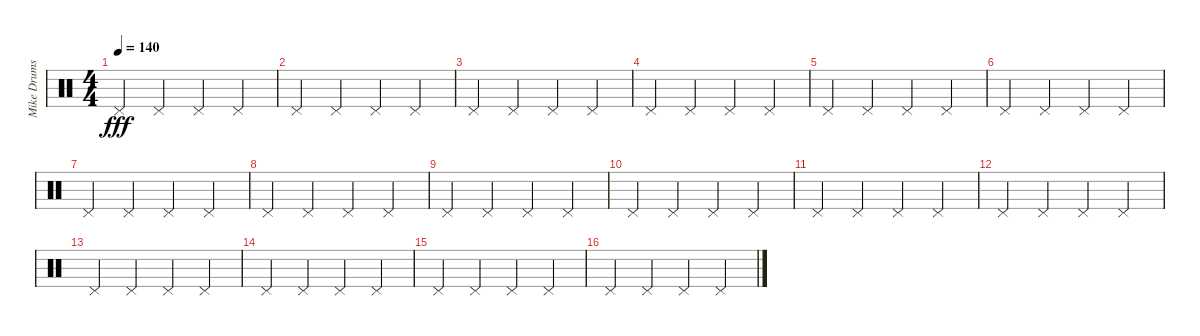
\track ("Mike Drums" "Mike Drums") {instrument percussion}
\staff {score}
\articulation defaults
\ts (4 4)
\tempo 140
\clef neutral
\ks c "Pedal Hi-Hat (hit)".4{dy fff} "Pedal Hi-Hat (hit)".4 "Pedal Hi-Hat (hit)".4 "Pedal Hi-Hat (hit)".4
|
"Pedal Hi-Hat (hit)".4 "Pedal Hi-Hat (hit)".4 "Pedal Hi-Hat (hit)".4 "Pedal Hi-Hat (hit)".4 |
"Pedal Hi-Hat (hit)".4 "Pedal Hi-Hat (hit)".4 "Pedal Hi-Hat (hit)".4 "Pedal Hi-Hat (hit)".4 |
"Pedal Hi-Hat (hit)".4 "Pedal Hi-Hat (hit)".4 "Pedal Hi-Hat (hit)".4 "Pedal Hi-Hat (hit)".4 |
"Pedal Hi-Hat (hit)".4 "Pedal Hi-Hat (hit)".4 "Pedal Hi-Hat (hit)".4 "Pedal Hi-Hat (hit)".4 |
"Pedal Hi-Hat (hit)".4 "Pedal Hi-Hat (hit)".4 "Pedal Hi-Hat (hit)".4 "Pedal Hi-Hat (hit)".4 |
"Pedal Hi-Hat (hit)".4 "Pedal Hi-Hat (hit)".4 "Pedal Hi-Hat (hit)".4 "Pedal Hi-Hat (hit)".4 |
"Pedal Hi-Hat (hit)".4 "Pedal Hi-Hat (hit)".4 "Pedal Hi-Hat (hit)".4 "Pedal Hi-Hat (hit)".4 |
"Pedal Hi-Hat (hit)".4 "Pedal Hi-Hat (hit)".4 "Pedal Hi-Hat (hit)".4 "Pedal Hi-Hat (hit)".4 |
"Pedal Hi-Hat (hit)".4 "Pedal Hi-Hat (hit)".4 "Pedal Hi-Hat (hit)".4 "Pedal Hi-Hat (hit)".4 |
"Pedal Hi-Hat (hit)".4 "Pedal Hi-Hat (hit)".4 "Pedal Hi-Hat (hit)".4 "Pedal Hi-Hat (hit)".4 |
"Pedal Hi-Hat (hit)".4 "Pedal Hi-Hat (hit)".4 "Pedal Hi-Hat (hit)".4 "Pedal Hi-Hat (hit)".4 |
"Pedal Hi-Hat (hit)".4 "Pedal Hi-Hat (hit)".4 "Pedal Hi-Hat (hit)".4 "Pedal Hi-Hat (hit)".4 |
"Pedal Hi-Hat (hit)".4 "Pedal Hi-Hat (hit)".4 "Pedal Hi-Hat (hit)".4 "Pedal Hi-Hat (hit)".4 |
"Pedal Hi-Hat (hit)".4 "Pedal Hi-Hat (hit)".4 "Pedal Hi-Hat (hit)".4 "Pedal Hi-Hat (hit)".4 |
"Pedal Hi-Hat (hit)".4 "Pedal Hi-Hat (hit)".4 "Pedal Hi-Hat (hit)".4 "Pedal Hi-Hat (hit)".4
